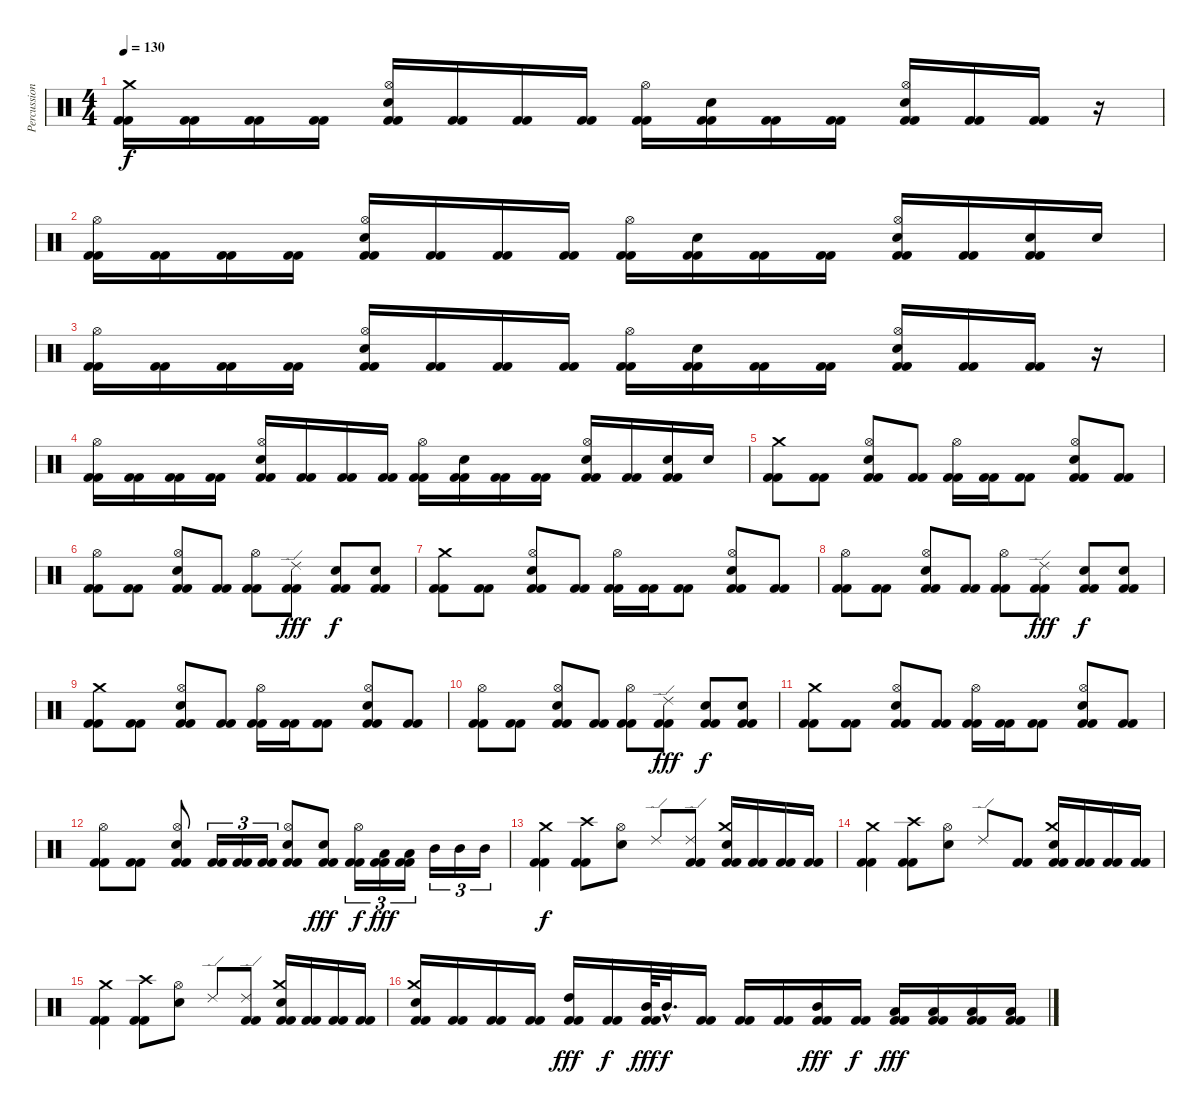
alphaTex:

\track ("Percussion" "Percussion") {instrument percussion}
\staff {score}
\articulation defaults
\ts (4 4)
\tempo 130
\clef neutral
\ks c
("Kick (hit) 2" "Kick (hit) 2" "Crash medium (hit)").16{dy f} ("Kick (hit) 2" "Kick (hit) 2").16 ("Kick (hit) 2" "Kick (hit) 2").16 ("Kick (hit) 2" "Kick (hit) 2").16 ("Kick (hit) 2" "Kick (hit) 2" "Hi-Hat (open)" "Electric Snare (hit)").16 ("Kick (hit) 2" "Kick (hit) 2").16 ("Kick (hit) 2" "Kick (hit) 2").16 ("Kick (hit) 2" "Kick (hit) 2").16 ("Kick (hit) 2" "Kick (hit) 2" "Hi-Hat (open)").16 ("Kick (hit) 2" "Kick (hit) 2" "Electric Snare (hit)").16 ("Kick (hit) 2" "Kick (hit) 2").16 ("Kick (hit) 2" "Kick (hit) 2").16 ("Kick (hit) 2" "Kick (hit) 2" "Hi-Hat (open)" "Electric Snare (hit)").16 ("Kick (hit) 2" "Kick (hit) 2").16 ("Kick (hit) 2" "Kick (hit) 2").16 r.16 |
("Kick (hit) 2" "Kick (hit) 2" "Hi-Hat (open)").16 ("Kick (hit) 2" "Kick (hit) 2").16 ("Kick (hit) 2" "Kick (hit) 2").16 ("Kick (hit) 2" "Kick (hit) 2").16 ("Kick (hit) 2" "Kick (hit) 2" "Hi-Hat (open)" "Electric Snare (hit)").16 ("Kick (hit) 2" "Kick (hit) 2").16 ("Kick (hit) 2" "Kick (hit) 2").16 ("Kick (hit) 2" "Kick (hit) 2").16 ("Kick (hit) 2" "Kick (hit) 2" "Hi-Hat (open)").16 ("Kick (hit) 2" "Kick (hit) 2" "Electric Snare (hit)").16 ("Kick (hit) 2" "Kick (hit) 2").16 ("Kick (hit) 2" "Kick (hit) 2").16 ("Kick (hit) 2" "Kick (hit) 2" "Hi-Hat (open)" "Electric Snare (hit)").16 ("Kick (hit) 2" "Kick (hit) 2").16 ("Kick (hit) 2" "Kick (hit) 2" "Electric Snare (hit)").16 "Electric Snare (hit)".16 |
("Kick (hit) 2" "Kick (hit) 2" "Hi-Hat (open)").16 ("Kick (hit) 2" "Kick (hit) 2").16 ("Kick (hit) 2" "Kick (hit) 2").16 ("Kick (hit) 2" "Kick (hit) 2").16 ("Kick (hit) 2" "Kick (hit) 2" "Hi-Hat (open)" "Electric Snare (hit)").16 ("Kick (hit) 2" "Kick (hit) 2").16 ("Kick (hit) 2" "Kick (hit) 2").16 ("Kick (hit) 2" "Kick (hit) 2").16 ("Kick (hit) 2" "Kick (hit) 2" "Hi-Hat (open)").16 ("Kick (hit) 2" "Kick (hit) 2" "Electric Snare (hit)").16 ("Kick (hit) 2" "Kick (hit) 2").16 ("Kick (hit) 2" "Kick (hit) 2").16 ("Kick (hit) 2" "Kick (hit) 2" "Hi-Hat (open)" "Electric Snare (hit)").16 ("Kick (hit) 2" "Kick (hit) 2").16 ("Kick (hit) 2" "Kick (hit) 2").16 r.16 |
("Kick (hit) 2" "Kick (hit) 2" "Hi-Hat (open)").16 ("Kick (hit) 2" "Kick (hit) 2").16 ("Kick (hit) 2" "Kick (hit) 2").16 ("Kick (hit) 2" "Kick (hit) 2").16 ("Kick (hit) 2" "Kick (hit) 2" "Hi-Hat (open)" "Electric Snare (hit)").16 ("Kick (hit) 2" "Kick (hit) 2").16 ("Kick (hit) 2" "Kick (hit) 2").16 ("Kick (hit) 2" "Kick (hit) 2").16 ("Kick (hit) 2" "Kick (hit) 2" "Hi-Hat (open)").16 ("Kick (hit) 2" "Kick (hit) 2" "Electric Snare (hit)").16 ("Kick (hit) 2" "Kick (hit) 2").16 ("Kick (hit) 2" "Kick (hit) 2").16 ("Kick (hit) 2" "Kick (hit) 2" "Hi-Hat (open)" "Electric Snare (hit)").16 ("Kick (hit) 2" "Kick (hit) 2").16 ("Kick (hit) 2" "Kick (hit) 2" "Electric Snare (hit)").16 "Electric Snare (hit)".16 |
("Kick (hit) 2" "Kick (hit) 2" "Crash medium (hit)").8 ("Kick (hit) 2" "Kick (hit) 2").8 ("Kick (hit) 2" "Kick (hit) 2" "Hi-Hat (open)" "Electric Snare (hit)").8 ("Kick (hit) 2" "Kick (hit) 2").8 ("Kick (hit) 2" "Kick (hit) 2" "Hi-Hat (open)").16 ("Kick (hit) 2" "Kick (hit) 2").16 ("Kick (hit) 2" "Kick (hit) 2").8 ("Kick (hit) 2" "Kick (hit) 2" "Hi-Hat (open)" "Electric Snare (hit)").8 ("Kick (hit) 2" "Kick (hit) 2").8 |
("Kick (hit) 2" "Kick (hit) 2" "Hi-Hat (open)").8 ("Kick (hit) 2" "Kick (hit) 2").8 ("Kick (hit) 2" "Kick (hit) 2" "Hi-Hat (open)" "Electric Snare (hit)").8 ("Kick (hit) 2" "Kick (hit) 2").8 ("Kick (hit) 2" "Kick (hit) 2" "Hi-Hat (open)").8 ("Kick (hit) 2" "Kick (hit) 2" "Ride (edge) 2").8{dy fff} ("Kick (hit) 2" "Kick (hit) 2" "Electric Snare (hit)").8{dy f} ("Kick (hit) 2" "Kick (hit) 2" "Electric Snare (hit)").8 |
("Kick (hit) 2" "Kick (hit) 2" "Crash medium (hit)").8 ("Kick (hit) 2" "Kick (hit) 2").8 ("Kick (hit) 2" "Kick (hit) 2" "Hi-Hat (open)" "Electric Snare (hit)").8 ("Kick (hit) 2" "Kick (hit) 2").8 ("Kick (hit) 2" "Kick (hit) 2" "Hi-Hat (open)").16 ("Kick (hit) 2" "Kick (hit) 2").16 ("Kick (hit) 2" "Kick (hit) 2").8 ("Kick (hit) 2" "Kick (hit) 2" "Hi-Hat (open)" "Electric Snare (hit)").8 ("Kick (hit) 2" "Kick (hit) 2").8 |
("Kick (hit) 2" "Kick (hit) 2" "Hi-Hat (open)").8 ("Kick (hit) 2" "Kick (hit) 2").8 ("Kick (hit) 2" "Kick (hit) 2" "Hi-Hat (open)" "Electric Snare (hit)").8 ("Kick (hit) 2" "Kick (hit) 2").8 ("Kick (hit) 2" "Kick (hit) 2" "Hi-Hat (open)").8 ("Kick (hit) 2" "Kick (hit) 2" "Ride (edge) 2").8{dy fff} ("Kick (hit) 2" "Kick (hit) 2" "Electric Snare (hit)").8{dy f} ("Kick (hit) 2" "Kick (hit) 2" "Electric Snare (hit)").8 |
("Kick (hit) 2" "Kick (hit) 2" "Crash medium (hit)").8 ("Kick (hit) 2" "Kick (hit) 2").8 ("Kick (hit) 2" "Kick (hit) 2" "Hi-Hat (open)" "Electric Snare (hit)").8 ("Kick (hit) 2" "Kick (hit) 2").8 ("Kick (hit) 2" "Kick (hit) 2" "Hi-Hat (open)").16 ("Kick (hit) 2" "Kick (hit) 2").16 ("Kick (hit) 2" "Kick (hit) 2").8 ("Kick (hit) 2" "Kick (hit) 2" "Hi-Hat (open)" "Electric Snare (hit)").8 ("Kick (hit) 2" "Kick (hit) 2").8 |
("Kick (hit) 2" "Kick (hit) 2" "Hi-Hat (open)").8 ("Kick (hit) 2" "Kick (hit) 2").8 ("Kick (hit) 2" "Kick (hit) 2" "Hi-Hat (open)" "Electric Snare (hit)").8 ("Kick (hit) 2" "Kick (hit) 2").8 ("Kick (hit) 2" "Kick (hit) 2" "Hi-Hat (open)").8 ("Kick (hit) 2" "Kick (hit) 2" "Ride (edge) 2").8{dy fff} ("Kick (hit) 2" "Kick (hit) 2" "Electric Snare (hit)").8{dy f} ("Kick (hit) 2" "Kick (hit) 2" "Electric Snare (hit)").8 |
("Kick (hit) 2" "Kick (hit) 2" "Crash medium (hit)").8 ("Kick (hit) 2" "Kick (hit) 2").8 ("Kick (hit) 2" "Kick (hit) 2" "Hi-Hat (open)" "Electric Snare (hit)").8 ("Kick (hit) 2" "Kick (hit) 2").8 ("Kick (hit) 2" "Kick (hit) 2" "Hi-Hat (open)").16 ("Kick (hit) 2" "Kick (hit) 2").16 ("Kick (hit) 2" "Kick (hit) 2").8 ("Kick (hit) 2" "Kick (hit) 2" "Hi-Hat (open)" "Electric Snare (hit)").8 ("Kick (hit) 2" "Kick (hit) 2").8 |
("Kick (hit) 2" "Kick (hit) 2" "Hi-Hat (open)").8 ("Kick (hit) 2" "Kick (hit) 2").8 ("Kick (hit) 2" "Kick (hit) 2" "Hi-Hat (open)" "Electric Snare (hit)").8 ("Kick (hit) 2" "Kick (hit) 2").16{tu (3 2)} ("Kick (hit) 2" "Kick (hit) 2").16{tu (3 2)} ("Kick (hit) 2" "Kick (hit) 2").16{tu (3 2)} ("Kick (hit) 2" "Kick (hit) 2" "Electric Snare (hit)" "Hi-Hat (open)").8 ("Kick (hit) 2" "Kick (hit) 2" "Electric Snare (hit)").8{dy fff} ("Kick (hit) 2" "Kick (hit) 2" "Hi-Hat (open)").16{tu (3 2) dy f} ("Kick (hit) 2" "Kick (hit) 2" "Low Tom (hit)").16{tu (3 2) dy fff} ("Kick (hit) 2" "Kick (hit) 2" "Low Tom (hit)").16{tu (3 2)} "Mid Tom (hit)".16{tu (3 2)} "Mid Tom (hit)".16{tu (3 2)} "Mid Tom (hit)".16{tu (3 2)} |
("Kick (hit) 2" "Kick (hit) 2" "Crash medium (hit)").4{dy f} ("Kick (hit) 2" "Kick (hit) 2" "Crash high (hit)").8 ("Hi-Hat (open)" "Electric Snare (hit)").8 "Ride (edge) 2".8 ("Kick (hit) 2" "Kick (hit) 2" "Ride (edge) 2").8 ("Kick (hit) 2" "Kick (hit) 2" "Electric Snare (hit)" "Crash medium (hit)").16 ("Kick (hit) 2" "Kick (hit) 2").16 ("Kick (hit) 2" "Kick (hit) 2").16 ("Kick (hit) 2" "Kick (hit) 2").16 |
("Kick (hit) 2" "Kick (hit) 2" "Crash medium (hit)").4 ("Kick (hit) 2" "Kick (hit) 2" "Crash high (hit)").8 ("Hi-Hat (open)" "Electric Snare (hit)").8 "Ride (edge) 2".8 ("Kick (hit) 2" "Kick (hit) 2").8 ("Kick (hit) 2" "Kick (hit) 2" "Electric Snare (hit)" "Crash medium (hit)").16 ("Kick (hit) 2" "Kick (hit) 2").16 ("Kick (hit) 2" "Kick (hit) 2").16 ("Kick (hit) 2" "Kick (hit) 2").16 |
("Kick (hit) 2" "Kick (hit) 2" "Crash medium (hit)").4 ("Kick (hit) 2" "Kick (hit) 2" "Crash high (hit)").8 ("Hi-Hat (open)" "Electric Snare (hit)").8 "Ride (edge) 2".8 ("Kick (hit) 2" "Kick (hit) 2" "Ride (edge) 2").8 ("Kick (hit) 2" "Kick (hit) 2" "Electric Snare (hit)" "Crash medium (hit)").16 ("Kick (hit) 2" "Kick (hit) 2").16 ("Kick (hit) 2" "Kick (hit) 2").16 ("Kick (hit) 2" "Kick (hit) 2").16 |
("Kick (hit) 2" "Kick (hit) 2" "Electric Snare (hit)" "Crash medium (hit)").16 ("Kick (hit) 2" "Kick (hit) 2").16 ("Kick (hit) 2" "Kick (hit) 2").16 ("Kick (hit) 2" "Kick (hit) 2").16 ("Kick (hit) 2" "Kick (hit) 2" "High Tom (hit)").16{dy fff} ("Kick (hit) 2" "Kick (hit) 2").16{dy f} ("Kick (hit) 2" "Kick (hit) 2" "Mid Tom (hit)").64{dy fff} "Mid Tom (hit)"{hac}.32{d dy f} ("Kick (hit) 2" "Kick (hit) 2").16 ("Kick (hit) 2" "Kick (hit) 2").16 ("Kick (hit) 2" "Kick (hit) 2").16 ("Kick (hit) 2" "Kick (hit) 2" "Mid Tom (hit)").16{dy fff} ("Kick (hit) 2" "Kick (hit) 2").16{dy f} ("Kick (hit) 2" "Kick (hit) 2" "Low Tom (hit)").16{dy fff} ("Kick (hit) 2" "Kick (hit) 2" "Low Tom (hit)").16 ("Kick (hit) 2" "Kick (hit) 2" "Low Tom (hit)").16 ("Kick (hit) 2" "Kick (hit) 2" "Low Tom (hit)").16
